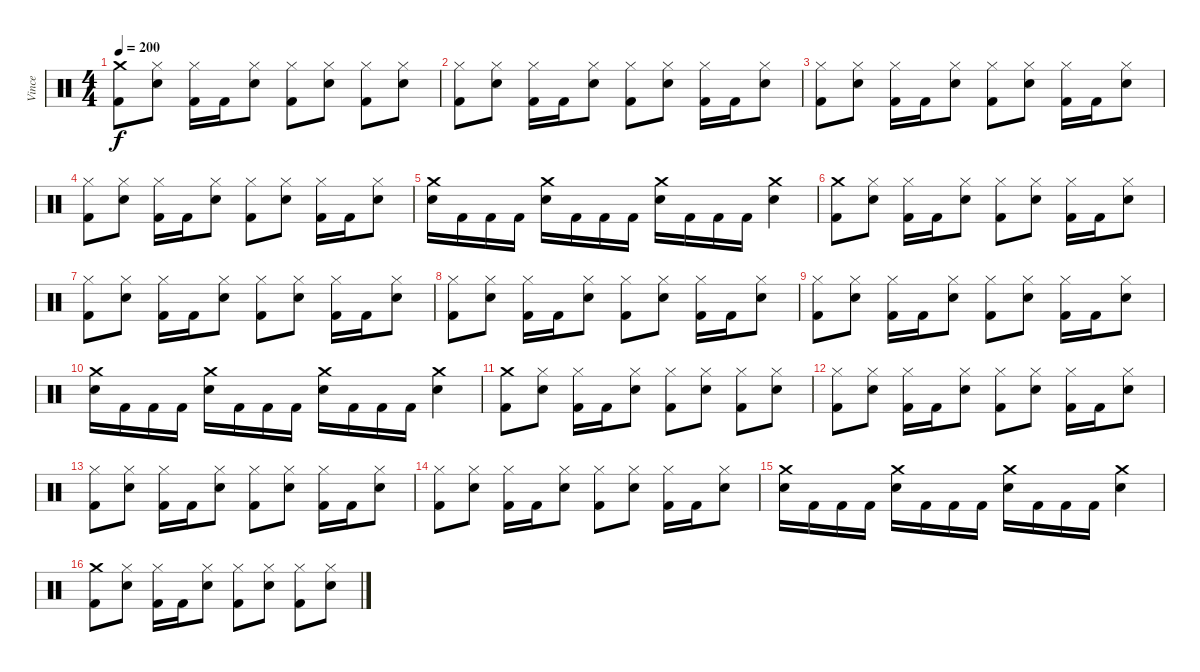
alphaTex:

\track ("Vince" "Vince") {instrument percussion}
\staff {score}
\articulation defaults
\ts (4 4)
\tempo 200
\clef neutral
\ks c
("Crash medium (hit)" "Kick (hit) 2").8{dy f} ("Hi-Hat (closed)" "Snare (hit) 2").8 ("Hi-Hat (closed)" "Kick (hit) 2").16 "Kick (hit) 2".16 ("Hi-Hat (closed)" "Snare (hit) 2").8 ("Hi-Hat (closed)" "Kick (hit) 2").8 ("Hi-Hat (closed)" "Snare (hit) 2").8 ("Hi-Hat (closed)" "Kick (hit) 2").8 ("Hi-Hat (closed)" "Snare (hit) 2").8 |
("Hi-Hat (closed)" "Kick (hit) 2").8 ("Hi-Hat (closed)" "Snare (hit) 2").8 ("Hi-Hat (closed)" "Kick (hit) 2").16 "Kick (hit) 2".16 ("Hi-Hat (closed)" "Snare (hit) 2").8 ("Hi-Hat (closed)" "Kick (hit) 2").8 ("Hi-Hat (closed)" "Snare (hit) 2").8 ("Hi-Hat (closed)" "Kick (hit) 2").16 "Kick (hit) 2".16 ("Hi-Hat (closed)" "Snare (hit) 2").8 |
("Hi-Hat (closed)" "Kick (hit) 2").8 ("Hi-Hat (closed)" "Snare (hit) 2").8 ("Hi-Hat (closed)" "Kick (hit) 2").16 "Kick (hit) 2".16 ("Hi-Hat (closed)" "Snare (hit) 2").8 ("Hi-Hat (closed)" "Kick (hit) 2").8 ("Hi-Hat (closed)" "Snare (hit) 2").8 ("Hi-Hat (closed)" "Kick (hit) 2").16 "Kick (hit) 2".16 ("Hi-Hat (closed)" "Snare (hit) 2").8 |
("Hi-Hat (closed)" "Kick (hit) 2").8 ("Hi-Hat (closed)" "Snare (hit) 2").8 ("Hi-Hat (closed)" "Kick (hit) 2").16 "Kick (hit) 2".16 ("Hi-Hat (closed)" "Snare (hit) 2").8 ("Hi-Hat (closed)" "Kick (hit) 2").8 ("Hi-Hat (closed)" "Snare (hit) 2").8 ("Hi-Hat (closed)" "Kick (hit) 2").16 "Kick (hit) 2".16 ("Hi-Hat (closed)" "Snare (hit) 2").8 |
("Crash medium (hit)" "Snare (hit) 2").16 "Kick (hit) 2".16 "Kick (hit) 2".16 "Kick (hit) 2".16 ("Crash medium (hit)" "Snare (hit) 2").16 "Kick (hit) 2".16 "Kick (hit) 2".16 "Kick (hit) 2".16 ("Crash medium (hit)" "Snare (hit) 2").16 "Kick (hit) 2".16 "Kick (hit) 2".16 "Kick (hit) 2".16 ("Crash medium (hit)" "Snare (hit) 2").4 |
("Crash medium (hit)" "Kick (hit) 2").8 ("Hi-Hat (closed)" "Snare (hit) 2").8 ("Hi-Hat (closed)" "Kick (hit) 2").16 "Kick (hit) 2".16 ("Hi-Hat (closed)" "Snare (hit) 2").8 ("Hi-Hat (closed)" "Kick (hit) 2").8 ("Hi-Hat (closed)" "Snare (hit) 2").8 ("Hi-Hat (closed)" "Kick (hit) 2").16 "Kick (hit) 2".16 ("Hi-Hat (closed)" "Snare (hit) 2").8 |
("Hi-Hat (closed)" "Kick (hit) 2").8 ("Hi-Hat (closed)" "Snare (hit) 2").8 ("Hi-Hat (closed)" "Kick (hit) 2").16 "Kick (hit) 2".16 ("Hi-Hat (closed)" "Snare (hit) 2").8 ("Hi-Hat (closed)" "Kick (hit) 2").8 ("Hi-Hat (closed)" "Snare (hit) 2").8 ("Hi-Hat (closed)" "Kick (hit) 2").16 "Kick (hit) 2".16 ("Hi-Hat (closed)" "Snare (hit) 2").8 |
("Hi-Hat (closed)" "Kick (hit) 2").8 ("Hi-Hat (closed)" "Snare (hit) 2").8 ("Hi-Hat (closed)" "Kick (hit) 2").16 "Kick (hit) 2".16 ("Hi-Hat (closed)" "Snare (hit) 2").8 ("Hi-Hat (closed)" "Kick (hit) 2").8 ("Hi-Hat (closed)" "Snare (hit) 2").8 ("Hi-Hat (closed)" "Kick (hit) 2").16 "Kick (hit) 2".16 ("Hi-Hat (closed)" "Snare (hit) 2").8 |
("Hi-Hat (closed)" "Kick (hit) 2").8 ("Hi-Hat (closed)" "Snare (hit) 2").8 ("Hi-Hat (closed)" "Kick (hit) 2").16 "Kick (hit) 2".16 ("Hi-Hat (closed)" "Snare (hit) 2").8 ("Hi-Hat (closed)" "Kick (hit) 2").8 ("Hi-Hat (closed)" "Snare (hit) 2").8 ("Hi-Hat (closed)" "Kick (hit) 2").16 "Kick (hit) 2".16 ("Hi-Hat (closed)" "Snare (hit) 2").8 |
("Crash medium (hit)" "Snare (hit) 2").16 "Kick (hit) 2".16 "Kick (hit) 2".16 "Kick (hit) 2".16 ("Crash medium (hit)" "Snare (hit) 2").16 "Kick (hit) 2".16 "Kick (hit) 2".16 "Kick (hit) 2".16 ("Crash medium (hit)" "Snare (hit) 2").16 "Kick (hit) 2".16 "Kick (hit) 2".16 "Kick (hit) 2".16 ("Crash medium (hit)" "Snare (hit) 2").4 |
("Crash medium (hit)" "Kick (hit) 2").8 ("Hi-Hat (closed)" "Snare (hit) 2").8 ("Hi-Hat (closed)" "Kick (hit) 2").16 "Kick (hit) 2".16 ("Hi-Hat (closed)" "Snare (hit) 2").8 ("Hi-Hat (closed)" "Kick (hit) 2").8 ("Hi-Hat (closed)" "Snare (hit) 2").8 ("Hi-Hat (closed)" "Kick (hit) 2").8 ("Hi-Hat (closed)" "Snare (hit) 2").8 |
("Hi-Hat (closed)" "Kick (hit) 2").8 ("Hi-Hat (closed)" "Snare (hit) 2").8 ("Hi-Hat (closed)" "Kick (hit) 2").16 "Kick (hit) 2".16 ("Hi-Hat (closed)" "Snare (hit) 2").8 ("Hi-Hat (closed)" "Kick (hit) 2").8 ("Hi-Hat (closed)" "Snare (hit) 2").8 ("Hi-Hat (closed)" "Kick (hit) 2").16 "Kick (hit) 2".16 ("Hi-Hat (closed)" "Snare (hit) 2").8 |
("Hi-Hat (closed)" "Kick (hit) 2").8 ("Hi-Hat (closed)" "Snare (hit) 2").8 ("Hi-Hat (closed)" "Kick (hit) 2").16 "Kick (hit) 2".16 ("Hi-Hat (closed)" "Snare (hit) 2").8 ("Hi-Hat (closed)" "Kick (hit) 2").8 ("Hi-Hat (closed)" "Snare (hit) 2").8 ("Hi-Hat (closed)" "Kick (hit) 2").16 "Kick (hit) 2".16 ("Hi-Hat (closed)" "Snare (hit) 2").8 |
("Hi-Hat (closed)" "Kick (hit) 2").8 ("Hi-Hat (closed)" "Snare (hit) 2").8 ("Hi-Hat (closed)" "Kick (hit) 2").16 "Kick (hit) 2".16 ("Hi-Hat (closed)" "Snare (hit) 2").8 ("Hi-Hat (closed)" "Kick (hit) 2").8 ("Hi-Hat (closed)" "Snare (hit) 2").8 ("Hi-Hat (closed)" "Kick (hit) 2").16 "Kick (hit) 2".16 ("Hi-Hat (closed)" "Snare (hit) 2").8 |
("Crash medium (hit)" "Snare (hit) 2").16 "Kick (hit) 2".16 "Kick (hit) 2".16 "Kick (hit) 2".16 ("Crash medium (hit)" "Snare (hit) 2").16 "Kick (hit) 2".16 "Kick (hit) 2".16 "Kick (hit) 2".16 ("Crash medium (hit)" "Snare (hit) 2").16 "Kick (hit) 2".16 "Kick (hit) 2".16 "Kick (hit) 2".16 ("Crash medium (hit)" "Snare (hit) 2").4 |
("Crash medium (hit)" "Kick (hit) 2").8 ("Hi-Hat (closed)" "Snare (hit) 2").8 ("Hi-Hat (closed)" "Kick (hit) 2").16 "Kick (hit) 2".16 ("Hi-Hat (closed)" "Snare (hit) 2").8 ("Hi-Hat (closed)" "Kick (hit) 2").8 ("Hi-Hat (closed)" "Snare (hit) 2").8 ("Hi-Hat (closed)" "Kick (hit) 2").8 ("Hi-Hat (closed)" "Snare (hit) 2").8
